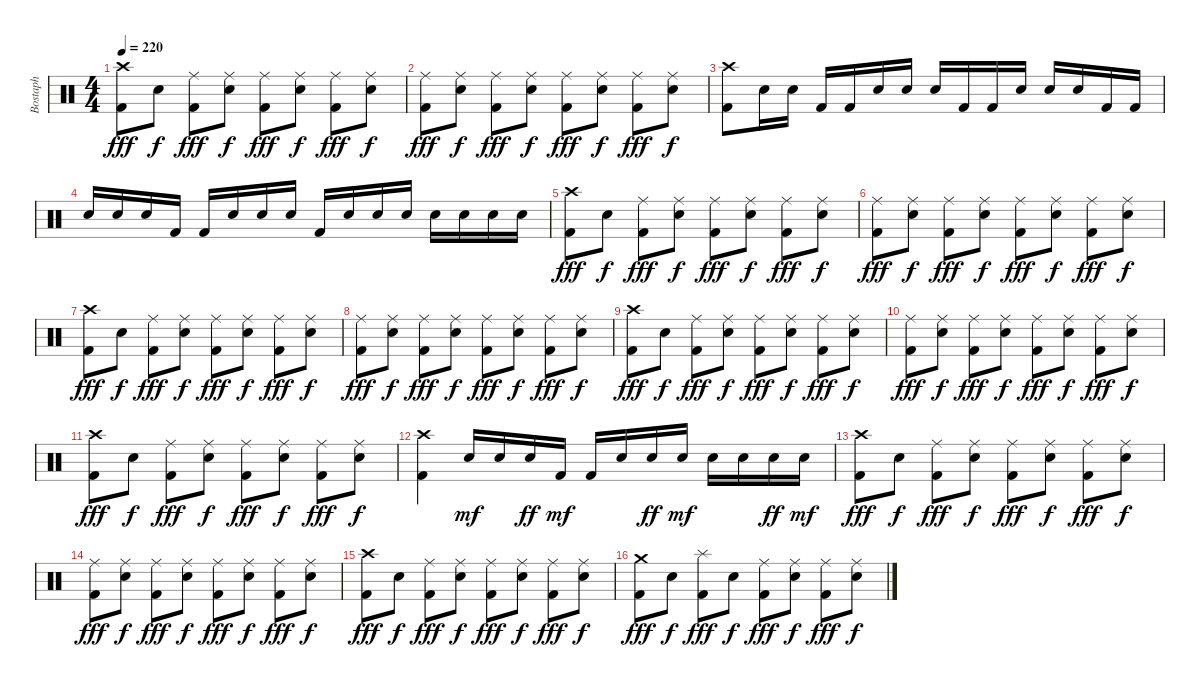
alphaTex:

\track ("Bostaph" "Bostaph") {instrument percussion}
\staff {score}
\articulation defaults
\ts (4 4)
\tempo 220
\clef neutral
\ks c
("Crash high (hit)" "Kick (hit) 2").8{dy fff} "Electric Snare (hit)".8{dy f} ("Ride (middle)" "Kick (hit) 2").8{dy fff} ("Ride (middle)" "Electric Snare (hit)").8{dy f} ("Ride (middle)" "Kick (hit) 2").8{dy fff} ("Ride (middle)" "Electric Snare (hit)").8{dy f} ("Ride (middle)" "Kick (hit) 2").8{dy fff} ("Ride (middle)" "Electric Snare (hit)").8{dy f} |
("Ride (middle)" "Kick (hit) 2").8{dy fff} ("Ride (middle)" "Electric Snare (hit)").8{dy f} ("Ride (middle)" "Kick (hit) 2").8{dy fff} ("Ride (middle)" "Electric Snare (hit)").8{dy f} ("Ride (middle)" "Kick (hit) 2").8{dy fff} ("Ride (middle)" "Electric Snare (hit)").8{dy f} ("Ride (middle)" "Kick (hit) 2").8{dy fff} ("Ride (middle)" "Electric Snare (hit)").8{dy f} |
("Crash high (hit)" "Kick (hit) 2").8 "Electric Snare (hit)".16 "Electric Snare (hit)".16 "Kick (hit) 2".16 "Kick (hit) 2".16 "Electric Snare (hit)".16 "Electric Snare (hit)".16 "Electric Snare (hit)".16 "Kick (hit) 2".16 "Kick (hit) 2".16 "Electric Snare (hit)".16 "Electric Snare (hit)".16 "Electric Snare (hit)".16 "Kick (hit) 2".16 "Kick (hit) 2".16 |
"Electric Snare (hit)".16 "Electric Snare (hit)".16 "Electric Snare (hit)".16 "Kick (hit) 2".16 "Kick (hit) 2".16 "Electric Snare (hit)".16 "Electric Snare (hit)".16 "Electric Snare (hit)".16 "Kick (hit) 2".16 "Electric Snare (hit)".16 "Electric Snare (hit)".16 "Electric Snare (hit)".16 "Electric Snare (hit)".16 "Electric Snare (hit)".16 "Electric Snare (hit)".16 "Electric Snare (hit)".16 |
("Crash high (hit)" "Kick (hit) 2").8{dy fff} "Electric Snare (hit)".8{dy f} ("Ride (middle)" "Kick (hit) 2").8{dy fff} ("Ride (middle)" "Electric Snare (hit)").8{dy f} ("Ride (middle)" "Kick (hit) 2").8{dy fff} ("Ride (middle)" "Electric Snare (hit)").8{dy f} ("Ride (middle)" "Kick (hit) 2").8{dy fff} ("Ride (middle)" "Electric Snare (hit)").8{dy f} |
("Ride (middle)" "Kick (hit) 2").8{dy fff} ("Ride (middle)" "Electric Snare (hit)").8{dy f} ("Ride (middle)" "Kick (hit) 2").8{dy fff} ("Ride (middle)" "Electric Snare (hit)").8{dy f} ("Ride (middle)" "Kick (hit) 2").8{dy fff} ("Ride (middle)" "Electric Snare (hit)").8{dy f} ("Ride (middle)" "Kick (hit) 2").8{dy fff} ("Ride (middle)" "Electric Snare (hit)").8{dy f} |
("Crash high (hit)" "Kick (hit) 2").8{dy fff} "Electric Snare (hit)".8{dy f} ("Ride (middle)" "Kick (hit) 2").8{dy fff} ("Ride (middle)" "Electric Snare (hit)").8{dy f} ("Ride (middle)" "Kick (hit) 2").8{dy fff} ("Ride (middle)" "Electric Snare (hit)").8{dy f} ("Ride (middle)" "Kick (hit) 2").8{dy fff} ("Ride (middle)" "Electric Snare (hit)").8{dy f} |
("Ride (middle)" "Kick (hit) 2").8{dy fff} ("Ride (middle)" "Electric Snare (hit)").8{dy f} ("Ride (middle)" "Kick (hit) 2").8{dy fff} ("Ride (middle)" "Electric Snare (hit)").8{dy f} ("Ride (middle)" "Kick (hit) 2").8{dy fff} ("Ride (middle)" "Electric Snare (hit)").8{dy f} ("Ride (middle)" "Kick (hit) 2").8{dy fff} ("Ride (middle)" "Electric Snare (hit)").8{dy f} |
("Crash high (hit)" "Kick (hit) 2").8{dy fff} "Electric Snare (hit)".8{dy f} ("Ride (middle)" "Kick (hit) 2").8{dy fff} ("Ride (middle)" "Electric Snare (hit)").8{dy f} ("Ride (middle)" "Kick (hit) 2").8{dy fff} ("Ride (middle)" "Electric Snare (hit)").8{dy f} ("Ride (middle)" "Kick (hit) 2").8{dy fff} ("Ride (middle)" "Electric Snare (hit)").8{dy f} |
("Ride (middle)" "Kick (hit) 2").8{dy fff} ("Ride (middle)" "Electric Snare (hit)").8{dy f} ("Ride (middle)" "Kick (hit) 2").8{dy fff} ("Ride (middle)" "Electric Snare (hit)").8{dy f} ("Ride (middle)" "Kick (hit) 2").8{dy fff} ("Ride (middle)" "Electric Snare (hit)").8{dy f} ("Ride (middle)" "Kick (hit) 2").8{dy fff} ("Ride (middle)" "Electric Snare (hit)").8{dy f} |
("Crash high (hit)" "Kick (hit) 2").8{dy fff} "Electric Snare (hit)".8{dy f} ("Ride (middle)" "Kick (hit) 2").8{dy fff} ("Ride (middle)" "Electric Snare (hit)").8{dy f} ("Ride (middle)" "Kick (hit) 2").8{dy fff} ("Ride (middle)" "Electric Snare (hit)").8{dy f} ("Ride (middle)" "Kick (hit) 2").8{dy fff} ("Ride (middle)" "Electric Snare (hit)").8{dy f} |
("Crash high (hit)" "Kick (hit) 2").4 "Electric Snare (hit)".16{dy mf} "Electric Snare (hit)".16 "Electric Snare (hit)".16{dy ff} "Kick (hit) 2".16{dy mf} "Kick (hit) 2".16 "Electric Snare (hit)".16 "Electric Snare (hit)".16{dy ff} "Electric Snare (hit)".16{dy mf} "Electric Snare (hit)".16 "Electric Snare (hit)".16 "Electric Snare (hit)".16{dy ff} "Electric Snare (hit)".16{dy mf} |
("Crash high (hit)" "Kick (hit) 2").8{dy fff} "Electric Snare (hit)".8{dy f} ("Ride (middle)" "Kick (hit) 2").8{dy fff} ("Ride (middle)" "Electric Snare (hit)").8{dy f} ("Ride (middle)" "Kick (hit) 2").8{dy fff} ("Ride (middle)" "Electric Snare (hit)").8{dy f} ("Ride (middle)" "Kick (hit) 2").8{dy fff} ("Ride (middle)" "Electric Snare (hit)").8{dy f} |
("Ride (middle)" "Kick (hit) 2").8{dy fff} ("Ride (middle)" "Electric Snare (hit)").8{dy f} ("Ride (middle)" "Kick (hit) 2").8{dy fff} ("Ride (middle)" "Electric Snare (hit)").8{dy f} ("Ride (middle)" "Kick (hit) 2").8{dy fff} ("Ride (middle)" "Electric Snare (hit)").8{dy f} ("Ride (middle)" "Kick (hit) 2").8{dy fff} ("Ride (middle)" "Electric Snare (hit)").8{dy f} |
("Crash high (hit)" "Kick (hit) 2").8{dy fff} "Electric Snare (hit)".8{dy f} ("Ride (middle)" "Kick (hit) 2").8{dy fff} ("Ride (middle)" "Electric Snare (hit)").8{dy f} ("Ride (middle)" "Kick (hit) 2").8{dy fff} ("Ride (middle)" "Electric Snare (hit)").8{dy f} ("Ride (middle)" "Kick (hit) 2").8{dy fff} ("Ride (middle)" "Electric Snare (hit)").8{dy f} |
("Crash medium (hit)" "Kick (hit) 2").8{dy fff} "Electric Snare (hit)".8{dy f} ("Splash (hit)" "Kick (hit) 2").8{dy fff} "Electric Snare (hit)".8{dy f} ("Ride (middle)" "Kick (hit) 2").8{dy fff} ("Ride (middle)" "Electric Snare (hit)").8{dy f} ("Ride (middle)" "Kick (hit) 2").8{dy fff} ("Ride (middle)" "Electric Snare (hit)").8{dy f}
